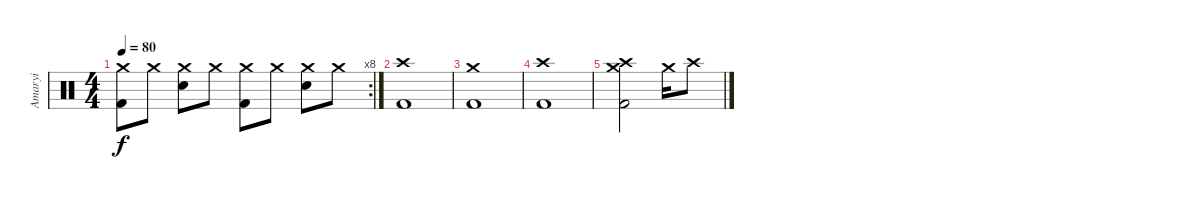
\track ("Amaryi" "Amaryi") {instrument percussion}
\staff {score}
\articulation defaults
\rc 8
\ts (4 4)
\tempo 80
\clef neutral
\ks c
("Crash medium (hit)" "Kick (hit) 2").8{dy f} "Crash medium (hit)".8 ("Crash medium (hit)" "Electric Snare (hit)").8 "Crash medium (hit)".8 ("Crash medium (hit)" "Kick (hit) 2").8 "Crash medium (hit)".8 ("Crash medium (hit)" "Electric Snare (hit)").8 "Crash medium (hit)".8 |
("Crash high (hit)" "Kick (hit) 2").1 |
("Crash medium (hit)" "Kick (hit) 2").1 |
("Crash high (hit)" "Kick (hit) 2").1 |
("Crash high (hit)" "Crash medium (hit)" "Kick (hit) 2").2 "Crash medium (hit)".16 "Crash high (hit)".8
